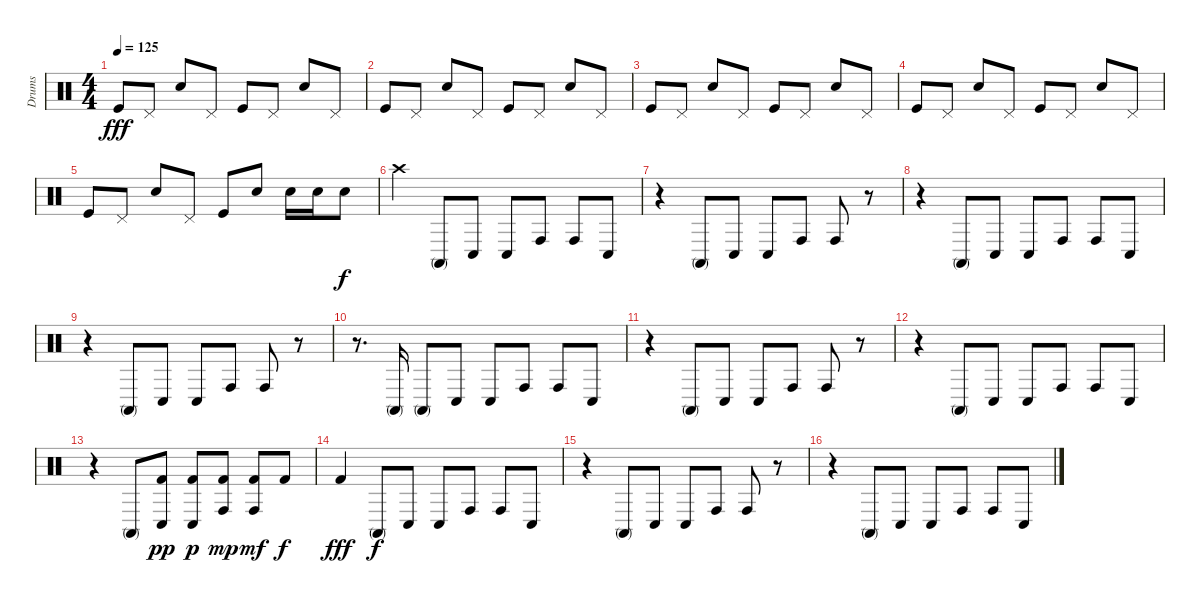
\track ("Drums" "Drums") {instrument percussion}
\staff {score}
\articulation defaults
\ts (4 4)
\tempo 125
\clef neutral
\ks c "Kick (hit)".8{dy fff} "Pedal Hi-Hat (hit)".8 "Electric Snare (hit)".8 "Pedal Hi-Hat (hit)".8 "Kick (hit)".8 "Pedal Hi-Hat (hit)".8 "Electric Snare (hit)".8 "Pedal Hi-Hat (hit)".8
|
"Kick (hit)".8 "Pedal Hi-Hat (hit)".8 "Electric Snare (hit)".8 "Pedal Hi-Hat (hit)".8 "Kick (hit)".8 "Pedal Hi-Hat (hit)".8 "Electric Snare (hit)".8 "Pedal Hi-Hat (hit)".8 |
"Kick (hit)".8 "Pedal Hi-Hat (hit)".8 "Electric Snare (hit)".8 "Pedal Hi-Hat (hit)".8 "Kick (hit)".8 "Pedal Hi-Hat (hit)".8 "Electric Snare (hit)".8 "Pedal Hi-Hat (hit)".8 |
"Kick (hit)".8 "Pedal Hi-Hat (hit)".8 "Electric Snare (hit)".8 "Pedal Hi-Hat (hit)".8 "Kick (hit)".8 "Pedal Hi-Hat (hit)".8 "Electric Snare (hit)".8 "Pedal Hi-Hat (hit)".8 |
"Kick (hit)".8 "Pedal Hi-Hat (hit)".8 "Electric Snare (hit)".8 "Pedal Hi-Hat (hit)".8 "Kick (hit)".8 "Electric Snare (hit)".8 "Electric Snare (hit)".16 "Electric Snare (hit)".16 "Electric Snare (hit)".8{dy f} |
"Crash high (hit)".4 "Conga high (mute)".8 "Conga low (hit)".8 "Conga low (hit)".8 "Conga high (hit)".8 "Conga high (hit)".8 "Conga low (hit)".8 |
r.4 "Conga high (mute)".8 "Conga low (hit)".8 "Conga low (hit)".8 "Conga high (hit)".8 "Conga high (hit)".8 r.8 |
r.4 "Conga high (mute)".8 "Conga low (hit)".8 "Conga low (hit)".8 "Conga high (hit)".8 "Conga high (hit)".8 "Conga low (hit)".8 |
r.4 "Conga high (mute)".8 "Conga low (hit)".8 "Conga low (hit)".8 "Conga high (hit)".8 "Conga high (hit)".8 r.8 |
r.8{d} "Conga high (mute)".16 "Conga high (mute)".8 "Conga low (hit)".8 "Conga low (hit)".8 "Conga high (hit)".8 "Conga high (hit)".8 "Conga low (hit)".8 |
r.4 "Conga high (mute)".8 "Conga low (hit)".8 "Conga low (hit)".8 "Conga high (hit)".8 "Conga high (hit)".8 r.8 |
r.4 "Conga high (mute)".8 "Conga low (hit)".8 "Conga low (hit)".8 "Conga high (hit)".8 "Conga high (hit)".8 "Conga low (hit)".8 |
r.4 "Conga high (mute)".8 ("Kick (hit) 2" "Conga low (hit)").8{dy pp} ("Kick (hit) 2" "Conga low (hit)").8{dy p} ("Kick (hit) 2" "Conga high (hit)").8{dy mp} ("Kick (hit) 2" "Conga high (hit)").8{dy mf} "Kick (hit) 2".8{dy f} |
"Kick (hit) 2".4{dy fff} "Conga high (mute)".8{dy f} "Conga low (hit)".8 "Conga low (hit)".8 "Conga high (hit)".8 "Conga high (hit)".8 "Conga low (hit)".8 |
r.4 "Conga high (mute)".8 "Conga low (hit)".8 "Conga low (hit)".8 "Conga high (hit)".8 "Conga high (hit)".8 r.8 |
r.4 "Conga high (mute)".8 "Conga low (hit)".8 "Conga low (hit)".8 "Conga high (hit)".8 "Conga high (hit)".8 "Conga low (hit)".8
